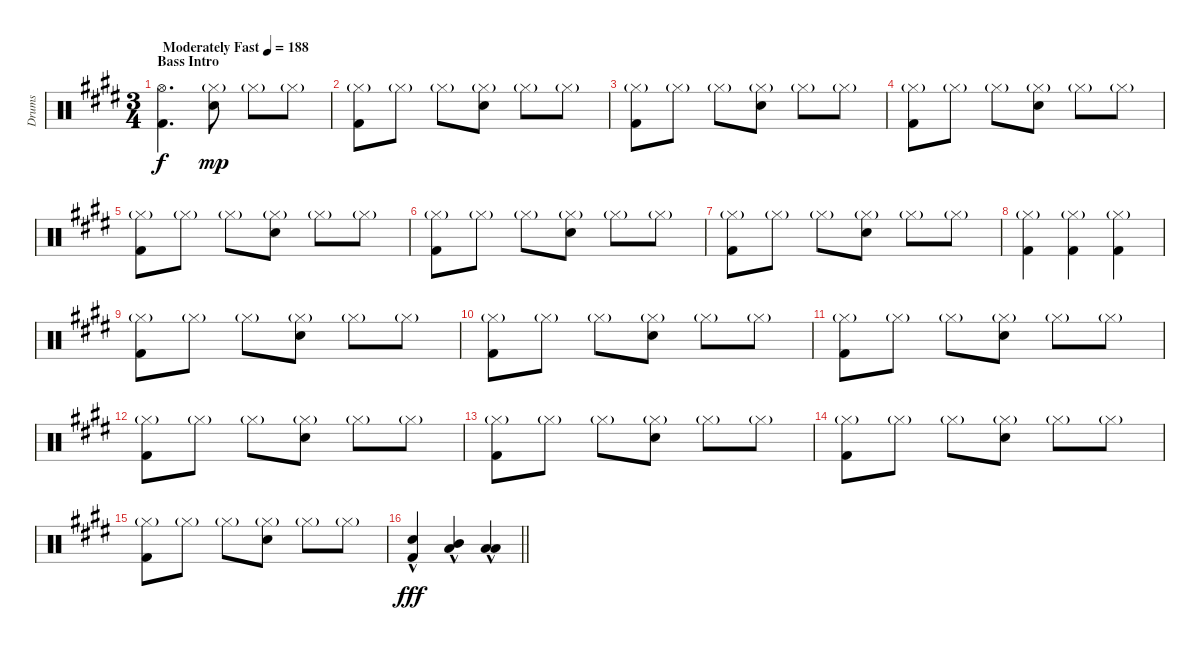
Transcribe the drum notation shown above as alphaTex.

\track ("Drums" "Drums") {instrument percussion}
\staff {score}
\articulation defaults
\ts (3 4)
\section ("" "Bass Intro")
\tempo (188 "Moderately Fast")
\clef neutral
\ks e
("Hi-Hat (open)" "Kick (hit) 2").4{d dy f} ("Hi-Hat (closed)"{g} "Electric Snare (hit)").8{dy mp} "Hi-Hat (closed)"{g}.8 "Hi-Hat (closed)"{g}.8 |
("Hi-Hat (closed)"{g} "Kick (hit) 2").8 "Hi-Hat (closed)"{g}.8 "Hi-Hat (closed)"{g}.8 ("Hi-Hat (closed)"{g} "Electric Snare (hit)").8 "Hi-Hat (closed)"{g}.8 "Hi-Hat (closed)"{g}.8 |
("Hi-Hat (closed)"{g} "Kick (hit) 2").8 "Hi-Hat (closed)"{g}.8 "Hi-Hat (closed)"{g}.8 ("Hi-Hat (closed)"{g} "Electric Snare (hit)").8 "Hi-Hat (closed)"{g}.8 "Hi-Hat (closed)"{g}.8 |
("Hi-Hat (closed)"{g} "Kick (hit) 2").8 "Hi-Hat (closed)"{g}.8 "Hi-Hat (closed)"{g}.8 ("Hi-Hat (closed)"{g} "Electric Snare (hit)").8 "Hi-Hat (closed)"{g}.8 "Hi-Hat (closed)"{g}.8 |
("Hi-Hat (closed)"{g} "Kick (hit) 2").8 "Hi-Hat (closed)"{g}.8 "Hi-Hat (closed)"{g}.8 ("Hi-Hat (closed)"{g} "Electric Snare (hit)").8 "Hi-Hat (closed)"{g}.8 "Hi-Hat (closed)"{g}.8 |
("Hi-Hat (closed)"{g} "Kick (hit) 2").8 "Hi-Hat (closed)"{g}.8 "Hi-Hat (closed)"{g}.8 ("Hi-Hat (closed)"{g} "Electric Snare (hit)").8 "Hi-Hat (closed)"{g}.8 "Hi-Hat (closed)"{g}.8 |
("Hi-Hat (closed)"{g} "Kick (hit) 2").8 "Hi-Hat (closed)"{g}.8 "Hi-Hat (closed)"{g}.8 ("Hi-Hat (closed)"{g} "Electric Snare (hit)").8 "Hi-Hat (closed)"{g}.8 "Hi-Hat (closed)"{g}.8 |
("Hi-Hat (closed)"{g} "Kick (hit) 2").4 ("Hi-Hat (closed)"{g} "Kick (hit) 2").4 ("Hi-Hat (closed)"{g} "Kick (hit) 2").4 |
("Hi-Hat (closed)"{g} "Kick (hit) 2").8 "Hi-Hat (closed)"{g}.8 "Hi-Hat (closed)"{g}.8 ("Hi-Hat (closed)"{g} "Electric Snare (hit)").8 "Hi-Hat (closed)"{g}.8 "Hi-Hat (closed)"{g}.8 |
("Hi-Hat (closed)"{g} "Kick (hit) 2").8 "Hi-Hat (closed)"{g}.8 "Hi-Hat (closed)"{g}.8 ("Hi-Hat (closed)"{g} "Electric Snare (hit)").8 "Hi-Hat (closed)"{g}.8 "Hi-Hat (closed)"{g}.8 |
("Hi-Hat (closed)"{g} "Kick (hit) 2").8 "Hi-Hat (closed)"{g}.8 "Hi-Hat (closed)"{g}.8 ("Hi-Hat (closed)"{g} "Electric Snare (hit)").8 "Hi-Hat (closed)"{g}.8 "Hi-Hat (closed)"{g}.8 |
("Hi-Hat (closed)"{g} "Kick (hit) 2").8 "Hi-Hat (closed)"{g}.8 "Hi-Hat (closed)"{g}.8 ("Hi-Hat (closed)"{g} "Electric Snare (hit)").8 "Hi-Hat (closed)"{g}.8 "Hi-Hat (closed)"{g}.8 |
("Hi-Hat (closed)"{g} "Kick (hit) 2").8 "Hi-Hat (closed)"{g}.8 "Hi-Hat (closed)"{g}.8 ("Hi-Hat (closed)"{g} "Electric Snare (hit)").8 "Hi-Hat (closed)"{g}.8 "Hi-Hat (closed)"{g}.8 |
("Hi-Hat (closed)"{g} "Kick (hit) 2").8 "Hi-Hat (closed)"{g}.8 "Hi-Hat (closed)"{g}.8 ("Hi-Hat (closed)"{g} "Electric Snare (hit)").8 "Hi-Hat (closed)"{g}.8 "Hi-Hat (closed)"{g}.8 |
("Hi-Hat (closed)"{g} "Kick (hit) 2").8 "Hi-Hat (closed)"{g}.8 "Hi-Hat (closed)"{g}.8 ("Hi-Hat (closed)"{g} "Electric Snare (hit)").8 "Hi-Hat (closed)"{g}.8 "Hi-Hat (closed)"{g}.8 |
\barLineRight lightlight
("Electric Snare (hit)"{hac} "Kick (hit) 2"{hac}).4{dy fff} ("Mid Tom (hit)"{hac} "Low Tom (hit)"{hac}).4 ("Low Tom (hit)"{hac} "Low Floor Tom (hit)"{hac}).4
